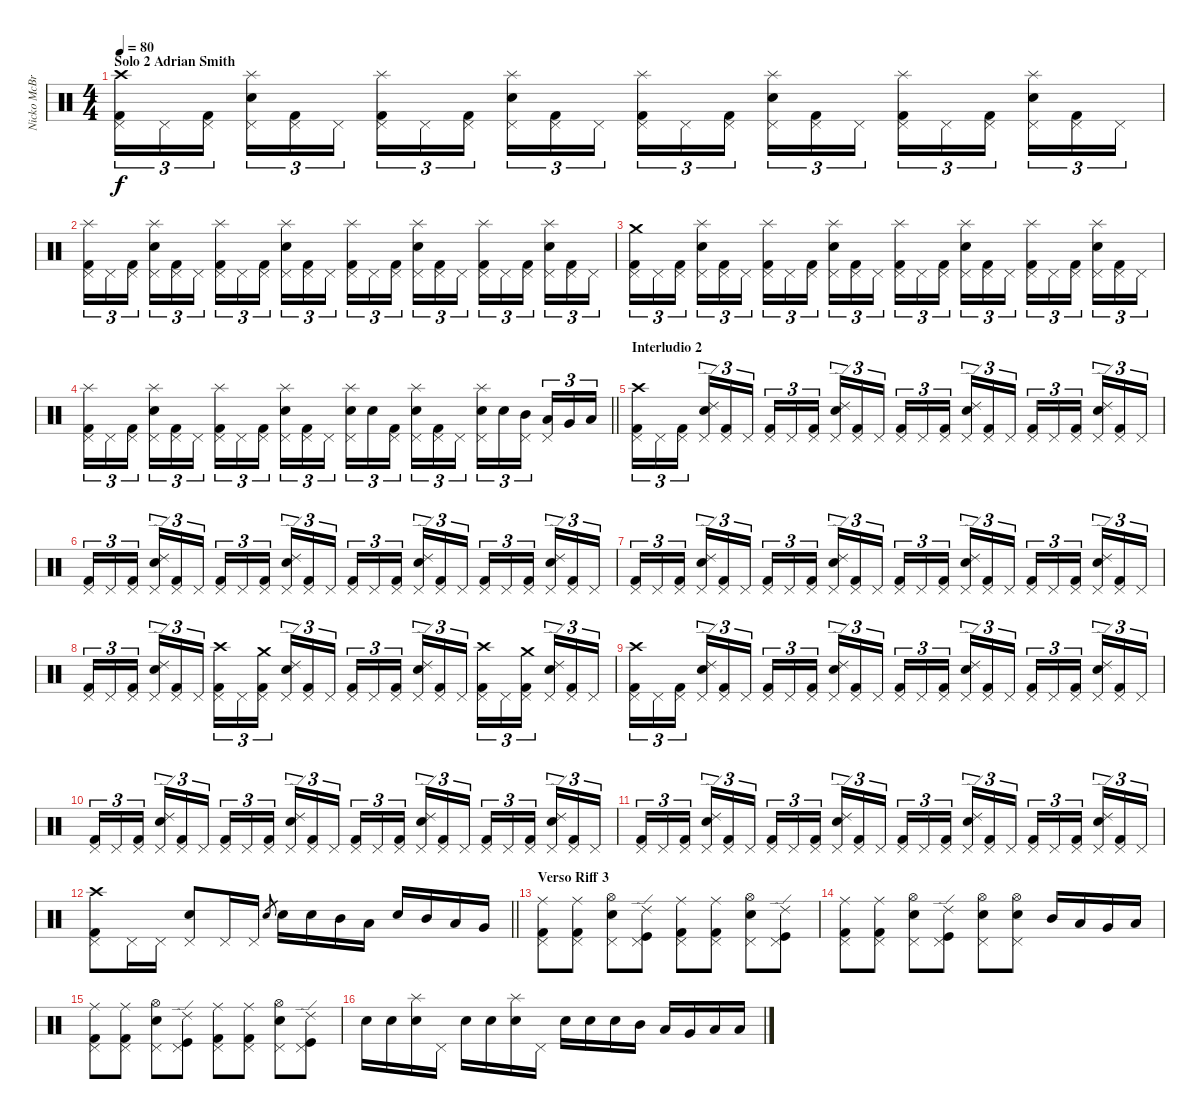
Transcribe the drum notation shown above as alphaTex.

\track ("Nicko McBrain" "Nicko McBr") {instrument percussion}
\staff {score}
\articulation defaults
\ts (4 4)
\section ("" "Solo 2 Adrian Smith")
\tempo 80
\clef neutral
\ks c
("Kick (hit) 2" "Pedal Hi-Hat (hit)" "Crash high (hit)").16{tu (3 2) dy f} "Pedal Hi-Hat (hit)".16{tu (3 2)} ("Kick (hit) 2" "Pedal Hi-Hat (hit)").16{tu (3 2) beam splitsecondary} ("Snare (hit) 2" "Pedal Hi-Hat (hit)" "Splash (hit)").16{tu (3 2)} ("Kick (hit) 2" "Pedal Hi-Hat (hit)").16{tu (3 2)} "Pedal Hi-Hat (hit)".16{tu (3 2)} ("Kick (hit) 2" "Pedal Hi-Hat (hit)" "Splash (hit)").16{tu (3 2)} "Pedal Hi-Hat (hit)".16{tu (3 2)} ("Kick (hit) 2" "Pedal Hi-Hat (hit)").16{tu (3 2) beam splitsecondary} ("Snare (hit) 2" "Pedal Hi-Hat (hit)" "Splash (hit)").16{tu (3 2)} ("Kick (hit) 2" "Pedal Hi-Hat (hit)").16{tu (3 2)} "Pedal Hi-Hat (hit)".16{tu (3 2)} ("Kick (hit) 2" "Pedal Hi-Hat (hit)" "Splash (hit)").16{tu (3 2)} "Pedal Hi-Hat (hit)".16{tu (3 2)} ("Kick (hit) 2" "Pedal Hi-Hat (hit)").16{tu (3 2) beam splitsecondary} ("Snare (hit) 2" "Pedal Hi-Hat (hit)" "Splash (hit)").16{tu (3 2)} ("Kick (hit) 2" "Pedal Hi-Hat (hit)").16{tu (3 2)} "Pedal Hi-Hat (hit)".16{tu (3 2)} ("Kick (hit) 2" "Pedal Hi-Hat (hit)" "Splash (hit)").16{tu (3 2)} "Pedal Hi-Hat (hit)".16{tu (3 2)} ("Kick (hit) 2" "Pedal Hi-Hat (hit)").16{tu (3 2) beam splitsecondary} ("Snare (hit) 2" "Pedal Hi-Hat (hit)" "Splash (hit)").16{tu (3 2)} ("Kick (hit) 2" "Pedal Hi-Hat (hit)").16{tu (3 2)} "Pedal Hi-Hat (hit)".16{tu (3 2)} |
("Kick (hit) 2" "Pedal Hi-Hat (hit)" "Splash (hit)").16{tu (3 2)} "Pedal Hi-Hat (hit)".16{tu (3 2)} ("Kick (hit) 2" "Pedal Hi-Hat (hit)").16{tu (3 2) beam splitsecondary} ("Snare (hit) 2" "Pedal Hi-Hat (hit)" "Splash (hit)").16{tu (3 2)} ("Kick (hit) 2" "Pedal Hi-Hat (hit)").16{tu (3 2)} "Pedal Hi-Hat (hit)".16{tu (3 2)} ("Kick (hit) 2" "Pedal Hi-Hat (hit)" "Splash (hit)").16{tu (3 2)} "Pedal Hi-Hat (hit)".16{tu (3 2)} ("Kick (hit) 2" "Pedal Hi-Hat (hit)").16{tu (3 2) beam splitsecondary} ("Snare (hit) 2" "Pedal Hi-Hat (hit)" "Splash (hit)").16{tu (3 2)} ("Kick (hit) 2" "Pedal Hi-Hat (hit)").16{tu (3 2)} "Pedal Hi-Hat (hit)".16{tu (3 2)} ("Kick (hit) 2" "Pedal Hi-Hat (hit)" "Splash (hit)").16{tu (3 2)} "Pedal Hi-Hat (hit)".16{tu (3 2)} ("Kick (hit) 2" "Pedal Hi-Hat (hit)").16{tu (3 2) beam splitsecondary} ("Snare (hit) 2" "Pedal Hi-Hat (hit)" "Splash (hit)").16{tu (3 2)} ("Kick (hit) 2" "Pedal Hi-Hat (hit)").16{tu (3 2)} "Pedal Hi-Hat (hit)".16{tu (3 2)} ("Kick (hit) 2" "Pedal Hi-Hat (hit)" "Splash (hit)").16{tu (3 2)} "Pedal Hi-Hat (hit)".16{tu (3 2)} ("Kick (hit) 2" "Pedal Hi-Hat (hit)").16{tu (3 2) beam splitsecondary} ("Snare (hit) 2" "Pedal Hi-Hat (hit)" "Splash (hit)").16{tu (3 2)} ("Kick (hit) 2" "Pedal Hi-Hat (hit)").16{tu (3 2)} "Pedal Hi-Hat (hit)".16{tu (3 2)} |
("Kick (hit) 2" "Pedal Hi-Hat (hit)" "Crash medium (hit)").16{tu (3 2)} "Pedal Hi-Hat (hit)".16{tu (3 2)} ("Kick (hit) 2" "Pedal Hi-Hat (hit)").16{tu (3 2) beam splitsecondary} ("Snare (hit) 2" "Pedal Hi-Hat (hit)" "Splash (hit)").16{tu (3 2)} ("Kick (hit) 2" "Pedal Hi-Hat (hit)").16{tu (3 2)} "Pedal Hi-Hat (hit)".16{tu (3 2)} ("Kick (hit) 2" "Pedal Hi-Hat (hit)" "Splash (hit)").16{tu (3 2)} "Pedal Hi-Hat (hit)".16{tu (3 2)} ("Kick (hit) 2" "Pedal Hi-Hat (hit)").16{tu (3 2) beam splitsecondary} ("Snare (hit) 2" "Pedal Hi-Hat (hit)" "Splash (hit)").16{tu (3 2)} ("Kick (hit) 2" "Pedal Hi-Hat (hit)").16{tu (3 2)} "Pedal Hi-Hat (hit)".16{tu (3 2)} ("Kick (hit) 2" "Pedal Hi-Hat (hit)" "Splash (hit)").16{tu (3 2)} "Pedal Hi-Hat (hit)".16{tu (3 2)} ("Kick (hit) 2" "Pedal Hi-Hat (hit)").16{tu (3 2) beam splitsecondary} ("Snare (hit) 2" "Pedal Hi-Hat (hit)" "Splash (hit)").16{tu (3 2)} ("Kick (hit) 2" "Pedal Hi-Hat (hit)").16{tu (3 2)} "Pedal Hi-Hat (hit)".16{tu (3 2)} ("Kick (hit) 2" "Pedal Hi-Hat (hit)" "Splash (hit)").16{tu (3 2)} "Pedal Hi-Hat (hit)".16{tu (3 2)} ("Kick (hit) 2" "Pedal Hi-Hat (hit)").16{tu (3 2) beam splitsecondary} ("Snare (hit) 2" "Pedal Hi-Hat (hit)" "Splash (hit)").16{tu (3 2)} ("Kick (hit) 2" "Pedal Hi-Hat (hit)").16{tu (3 2)} "Pedal Hi-Hat (hit)".16{tu (3 2)} |
\barLineRight lightlight
("Kick (hit) 2" "Pedal Hi-Hat (hit)" "Splash (hit)").16{tu (3 2)} "Pedal Hi-Hat (hit)".16{tu (3 2)} ("Kick (hit) 2" "Pedal Hi-Hat (hit)").16{tu (3 2) beam splitsecondary} ("Snare (hit) 2" "Pedal Hi-Hat (hit)" "Splash (hit)").16{tu (3 2)} ("Kick (hit) 2" "Pedal Hi-Hat (hit)").16{tu (3 2)} "Pedal Hi-Hat (hit)".16{tu (3 2)} ("Kick (hit) 2" "Pedal Hi-Hat (hit)" "Splash (hit)").16{tu (3 2)} "Pedal Hi-Hat (hit)".16{tu (3 2)} ("Kick (hit) 2" "Pedal Hi-Hat (hit)").16{tu (3 2) beam splitsecondary} ("Snare (hit) 2" "Pedal Hi-Hat (hit)" "Splash (hit)").16{tu (3 2)} ("Kick (hit) 2" "Pedal Hi-Hat (hit)").16{tu (3 2)} "Pedal Hi-Hat (hit)".16{tu (3 2)} ("Snare (hit) 2" "Pedal Hi-Hat (hit)" "Splash (hit)").16{tu (3 2)} "Snare (hit) 2".16{tu (3 2)} ("Kick (hit) 2" "Pedal Hi-Hat (hit)").16{tu (3 2) beam splitsecondary} ("Snare (hit) 2" "Pedal Hi-Hat (hit)" "Splash (hit)").16{tu (3 2)} ("Kick (hit) 2" "Pedal Hi-Hat (hit)").16{tu (3 2)} "Pedal Hi-Hat (hit)".16{tu (3 2)} ("Snare (hit) 2" "Pedal Hi-Hat (hit)" "Splash (hit)").16{tu (3 2)} "Snare (hit) 2".16{tu (3 2)} ("Mid Tom (hit)" "Pedal Hi-Hat (hit)").16{tu (3 2) beam splitsecondary} ("Low Tom (hit)" "Pedal Hi-Hat (hit)").16{tu (3 2)} "Very Low Tom (hit)".16{tu (3 2)} "Low Floor Tom (hit)".16{tu (3 2)} |
\section ("" "Interludio 2")
("Kick (hit) 2" "Pedal Hi-Hat (hit)" "Crash high (hit)").16{tu (3 2)} "Pedal Hi-Hat (hit)".16{tu (3 2)} ("Kick (hit) 2" "Pedal Hi-Hat (hit)").16{tu (3 2) beam splitsecondary} ("Snare (hit) 2" "Pedal Hi-Hat (hit)" "Ride (edge) 2").16{tu (3 2)} ("Kick (hit) 2" "Pedal Hi-Hat (hit)").16{tu (3 2)} "Pedal Hi-Hat (hit)".16{tu (3 2)} ("Kick (hit) 2" "Pedal Hi-Hat (hit)").16{tu (3 2)} "Pedal Hi-Hat (hit)".16{tu (3 2)} ("Kick (hit) 2" "Pedal Hi-Hat (hit)").16{tu (3 2) beam splitsecondary} ("Snare (hit) 2" "Pedal Hi-Hat (hit)" "Ride (edge) 2").16{tu (3 2)} ("Kick (hit) 2" "Pedal Hi-Hat (hit)").16{tu (3 2)} "Pedal Hi-Hat (hit)".16{tu (3 2)} ("Kick (hit) 2" "Pedal Hi-Hat (hit)").16{tu (3 2)} "Pedal Hi-Hat (hit)".16{tu (3 2)} ("Kick (hit) 2" "Pedal Hi-Hat (hit)").16{tu (3 2) beam splitsecondary} ("Snare (hit) 2" "Pedal Hi-Hat (hit)" "Ride (edge) 2").16{tu (3 2)} ("Kick (hit) 2" "Pedal Hi-Hat (hit)").16{tu (3 2)} "Pedal Hi-Hat (hit)".16{tu (3 2)} ("Kick (hit) 2" "Pedal Hi-Hat (hit)").16{tu (3 2)} "Pedal Hi-Hat (hit)".16{tu (3 2)} ("Kick (hit) 2" "Pedal Hi-Hat (hit)").16{tu (3 2) beam splitsecondary} ("Snare (hit) 2" "Pedal Hi-Hat (hit)" "Ride (edge) 2").16{tu (3 2)} ("Kick (hit) 2" "Pedal Hi-Hat (hit)").16{tu (3 2)} "Pedal Hi-Hat (hit)".16{tu (3 2)} |
("Kick (hit) 2" "Pedal Hi-Hat (hit)").16{tu (3 2)} "Pedal Hi-Hat (hit)".16{tu (3 2)} ("Kick (hit) 2" "Pedal Hi-Hat (hit)").16{tu (3 2) beam splitsecondary} ("Snare (hit) 2" "Pedal Hi-Hat (hit)" "Ride (edge) 2").16{tu (3 2)} ("Kick (hit) 2" "Pedal Hi-Hat (hit)").16{tu (3 2)} "Pedal Hi-Hat (hit)".16{tu (3 2)} ("Kick (hit) 2" "Pedal Hi-Hat (hit)").16{tu (3 2)} "Pedal Hi-Hat (hit)".16{tu (3 2)} ("Kick (hit) 2" "Pedal Hi-Hat (hit)").16{tu (3 2) beam splitsecondary} ("Snare (hit) 2" "Pedal Hi-Hat (hit)" "Ride (edge) 2").16{tu (3 2)} ("Kick (hit) 2" "Pedal Hi-Hat (hit)").16{tu (3 2)} "Pedal Hi-Hat (hit)".16{tu (3 2)} ("Kick (hit) 2" "Pedal Hi-Hat (hit)").16{tu (3 2)} "Pedal Hi-Hat (hit)".16{tu (3 2)} ("Kick (hit) 2" "Pedal Hi-Hat (hit)").16{tu (3 2) beam splitsecondary} ("Snare (hit) 2" "Pedal Hi-Hat (hit)" "Ride (edge) 2").16{tu (3 2)} ("Kick (hit) 2" "Pedal Hi-Hat (hit)").16{tu (3 2)} "Pedal Hi-Hat (hit)".16{tu (3 2)} ("Kick (hit) 2" "Pedal Hi-Hat (hit)").16{tu (3 2)} "Pedal Hi-Hat (hit)".16{tu (3 2)} ("Kick (hit) 2" "Pedal Hi-Hat (hit)").16{tu (3 2) beam splitsecondary} ("Snare (hit) 2" "Pedal Hi-Hat (hit)" "Ride (edge) 2").16{tu (3 2)} ("Kick (hit) 2" "Pedal Hi-Hat (hit)").16{tu (3 2)} "Pedal Hi-Hat (hit)".16{tu (3 2)} |
("Kick (hit) 2" "Pedal Hi-Hat (hit)").16{tu (3 2)} "Pedal Hi-Hat (hit)".16{tu (3 2)} ("Kick (hit) 2" "Pedal Hi-Hat (hit)").16{tu (3 2) beam splitsecondary} ("Snare (hit) 2" "Pedal Hi-Hat (hit)" "Ride (edge) 2").16{tu (3 2)} ("Kick (hit) 2" "Pedal Hi-Hat (hit)").16{tu (3 2)} "Pedal Hi-Hat (hit)".16{tu (3 2)} ("Kick (hit) 2" "Pedal Hi-Hat (hit)").16{tu (3 2)} "Pedal Hi-Hat (hit)".16{tu (3 2)} ("Kick (hit) 2" "Pedal Hi-Hat (hit)").16{tu (3 2) beam splitsecondary} ("Snare (hit) 2" "Pedal Hi-Hat (hit)" "Ride (edge) 2").16{tu (3 2)} ("Kick (hit) 2" "Pedal Hi-Hat (hit)").16{tu (3 2)} "Pedal Hi-Hat (hit)".16{tu (3 2)} ("Kick (hit) 2" "Pedal Hi-Hat (hit)").16{tu (3 2)} "Pedal Hi-Hat (hit)".16{tu (3 2)} ("Kick (hit) 2" "Pedal Hi-Hat (hit)").16{tu (3 2) beam splitsecondary} ("Snare (hit) 2" "Pedal Hi-Hat (hit)" "Ride (edge) 2").16{tu (3 2)} ("Kick (hit) 2" "Pedal Hi-Hat (hit)").16{tu (3 2)} "Pedal Hi-Hat (hit)".16{tu (3 2)} ("Kick (hit) 2" "Pedal Hi-Hat (hit)").16{tu (3 2)} "Pedal Hi-Hat (hit)".16{tu (3 2)} ("Kick (hit) 2" "Pedal Hi-Hat (hit)").16{tu (3 2) beam splitsecondary} ("Snare (hit) 2" "Pedal Hi-Hat (hit)" "Ride (edge) 2").16{tu (3 2)} ("Kick (hit) 2" "Pedal Hi-Hat (hit)").16{tu (3 2)} "Pedal Hi-Hat (hit)".16{tu (3 2)} |
("Kick (hit) 2" "Pedal Hi-Hat (hit)").16{tu (3 2)} "Pedal Hi-Hat (hit)".16{tu (3 2)} ("Kick (hit) 2" "Pedal Hi-Hat (hit)").16{tu (3 2) beam splitsecondary} ("Snare (hit) 2" "Pedal Hi-Hat (hit)" "Ride (edge) 2").16{tu (3 2)} ("Kick (hit) 2" "Pedal Hi-Hat (hit)").16{tu (3 2)} "Pedal Hi-Hat (hit)".16{tu (3 2)} ("Kick (hit) 2" "Pedal Hi-Hat (hit)" "Crash high (hit)").16{tu (3 2)} "Pedal Hi-Hat (hit)".16{tu (3 2)} ("Kick (hit) 2" "Pedal Hi-Hat (hit)" "Crash medium (hit)").16{tu (3 2) beam splitsecondary} ("Snare (hit) 2" "Pedal Hi-Hat (hit)" "Ride (edge) 2").16{tu (3 2)} ("Kick (hit) 2" "Pedal Hi-Hat (hit)").16{tu (3 2)} "Pedal Hi-Hat (hit)".16{tu (3 2)} ("Kick (hit) 2" "Pedal Hi-Hat (hit)").16{tu (3 2)} "Pedal Hi-Hat (hit)".16{tu (3 2)} ("Kick (hit) 2" "Pedal Hi-Hat (hit)").16{tu (3 2) beam splitsecondary} ("Snare (hit) 2" "Pedal Hi-Hat (hit)" "Ride (edge) 2").16{tu (3 2)} ("Kick (hit) 2" "Pedal Hi-Hat (hit)").16{tu (3 2)} "Pedal Hi-Hat (hit)".16{tu (3 2)} ("Kick (hit) 2" "Pedal Hi-Hat (hit)" "Crash high (hit)").16{tu (3 2)} "Pedal Hi-Hat (hit)".16{tu (3 2)} ("Kick (hit) 2" "Pedal Hi-Hat (hit)" "Crash medium (hit)").16{tu (3 2) beam splitsecondary} ("Snare (hit) 2" "Pedal Hi-Hat (hit)" "Ride (edge) 2").16{tu (3 2)} ("Kick (hit) 2" "Pedal Hi-Hat (hit)").16{tu (3 2)} "Pedal Hi-Hat (hit)".16{tu (3 2)} |
("Kick (hit) 2" "Pedal Hi-Hat (hit)" "Crash high (hit)").16{tu (3 2)} "Pedal Hi-Hat (hit)".16{tu (3 2)} ("Kick (hit) 2" "Pedal Hi-Hat (hit)").16{tu (3 2) beam splitsecondary} ("Snare (hit) 2" "Pedal Hi-Hat (hit)" "Ride (edge) 2").16{tu (3 2)} ("Kick (hit) 2" "Pedal Hi-Hat (hit)").16{tu (3 2)} "Pedal Hi-Hat (hit)".16{tu (3 2)} ("Kick (hit) 2" "Pedal Hi-Hat (hit)").16{tu (3 2)} "Pedal Hi-Hat (hit)".16{tu (3 2)} ("Kick (hit) 2" "Pedal Hi-Hat (hit)").16{tu (3 2) beam splitsecondary} ("Snare (hit) 2" "Pedal Hi-Hat (hit)" "Ride (edge) 2").16{tu (3 2)} ("Kick (hit) 2" "Pedal Hi-Hat (hit)").16{tu (3 2)} "Pedal Hi-Hat (hit)".16{tu (3 2)} ("Kick (hit) 2" "Pedal Hi-Hat (hit)").16{tu (3 2)} "Pedal Hi-Hat (hit)".16{tu (3 2)} ("Kick (hit) 2" "Pedal Hi-Hat (hit)").16{tu (3 2) beam splitsecondary} ("Snare (hit) 2" "Pedal Hi-Hat (hit)" "Ride (edge) 2").16{tu (3 2)} ("Kick (hit) 2" "Pedal Hi-Hat (hit)").16{tu (3 2)} "Pedal Hi-Hat (hit)".16{tu (3 2)} ("Kick (hit) 2" "Pedal Hi-Hat (hit)").16{tu (3 2)} "Pedal Hi-Hat (hit)".16{tu (3 2)} ("Kick (hit) 2" "Pedal Hi-Hat (hit)").16{tu (3 2) beam splitsecondary} ("Snare (hit) 2" "Pedal Hi-Hat (hit)" "Ride (edge) 2").16{tu (3 2)} ("Kick (hit) 2" "Pedal Hi-Hat (hit)").16{tu (3 2)} "Pedal Hi-Hat (hit)".16{tu (3 2)} |
("Kick (hit) 2" "Pedal Hi-Hat (hit)").16{tu (3 2)} "Pedal Hi-Hat (hit)".16{tu (3 2)} ("Kick (hit) 2" "Pedal Hi-Hat (hit)").16{tu (3 2) beam splitsecondary} ("Snare (hit) 2" "Pedal Hi-Hat (hit)" "Ride (edge) 2").16{tu (3 2)} ("Kick (hit) 2" "Pedal Hi-Hat (hit)").16{tu (3 2)} "Pedal Hi-Hat (hit)".16{tu (3 2)} ("Kick (hit) 2" "Pedal Hi-Hat (hit)").16{tu (3 2)} "Pedal Hi-Hat (hit)".16{tu (3 2)} ("Kick (hit) 2" "Pedal Hi-Hat (hit)").16{tu (3 2) beam splitsecondary} ("Snare (hit) 2" "Pedal Hi-Hat (hit)" "Ride (edge) 2").16{tu (3 2)} ("Kick (hit) 2" "Pedal Hi-Hat (hit)").16{tu (3 2)} "Pedal Hi-Hat (hit)".16{tu (3 2)} ("Kick (hit) 2" "Pedal Hi-Hat (hit)").16{tu (3 2)} "Pedal Hi-Hat (hit)".16{tu (3 2)} ("Kick (hit) 2" "Pedal Hi-Hat (hit)").16{tu (3 2) beam splitsecondary} ("Snare (hit) 2" "Pedal Hi-Hat (hit)" "Ride (edge) 2").16{tu (3 2)} ("Kick (hit) 2" "Pedal Hi-Hat (hit)").16{tu (3 2)} "Pedal Hi-Hat (hit)".16{tu (3 2)} ("Kick (hit) 2" "Pedal Hi-Hat (hit)").16{tu (3 2)} "Pedal Hi-Hat (hit)".16{tu (3 2)} ("Kick (hit) 2" "Pedal Hi-Hat (hit)").16{tu (3 2) beam splitsecondary} ("Snare (hit) 2" "Pedal Hi-Hat (hit)" "Ride (edge) 2").16{tu (3 2)} ("Kick (hit) 2" "Pedal Hi-Hat (hit)").16{tu (3 2)} "Pedal Hi-Hat (hit)".16{tu (3 2)} |
("Kick (hit) 2" "Pedal Hi-Hat (hit)").16{tu (3 2)} "Pedal Hi-Hat (hit)".16{tu (3 2)} ("Kick (hit) 2" "Pedal Hi-Hat (hit)").16{tu (3 2) beam splitsecondary} ("Snare (hit) 2" "Pedal Hi-Hat (hit)" "Ride (edge) 2").16{tu (3 2)} ("Kick (hit) 2" "Pedal Hi-Hat (hit)").16{tu (3 2)} "Pedal Hi-Hat (hit)".16{tu (3 2)} ("Kick (hit) 2" "Pedal Hi-Hat (hit)").16{tu (3 2)} "Pedal Hi-Hat (hit)".16{tu (3 2)} ("Kick (hit) 2" "Pedal Hi-Hat (hit)").16{tu (3 2) beam splitsecondary} ("Snare (hit) 2" "Pedal Hi-Hat (hit)" "Ride (edge) 2").16{tu (3 2)} ("Kick (hit) 2" "Pedal Hi-Hat (hit)").16{tu (3 2)} "Pedal Hi-Hat (hit)".16{tu (3 2)} ("Kick (hit) 2" "Pedal Hi-Hat (hit)").16{tu (3 2)} "Pedal Hi-Hat (hit)".16{tu (3 2)} ("Kick (hit) 2" "Pedal Hi-Hat (hit)").16{tu (3 2) beam splitsecondary} ("Snare (hit) 2" "Pedal Hi-Hat (hit)" "Ride (edge) 2").16{tu (3 2)} ("Kick (hit) 2" "Pedal Hi-Hat (hit)").16{tu (3 2)} "Pedal Hi-Hat (hit)".16{tu (3 2)} ("Kick (hit) 2" "Pedal Hi-Hat (hit)").16{tu (3 2)} "Pedal Hi-Hat (hit)".16{tu (3 2)} ("Kick (hit) 2" "Pedal Hi-Hat (hit)").16{tu (3 2) beam splitsecondary} ("Snare (hit) 2" "Pedal Hi-Hat (hit)" "Ride (edge) 2").16{tu (3 2)} ("Kick (hit) 2" "Pedal Hi-Hat (hit)").16{tu (3 2)} "Pedal Hi-Hat (hit)".16{tu (3 2)} |
\barLineRight lightlight
("Kick (hit) 2" "Pedal Hi-Hat (hit)" "Crash high (hit)").8 "Pedal Hi-Hat (hit)".16 "Pedal Hi-Hat (hit)".16 ("Snare (hit) 2" "Pedal Hi-Hat (hit)").8 "Pedal Hi-Hat (hit)".16 "Pedal Hi-Hat (hit)".16 "Snare (hit) 2".8{gr} "Snare (hit) 2".16 "Snare (hit) 2".16 "Mid Tom (hit)".16 "Low Tom (hit)".16 "Snare (hit) 2".16 "Mid Tom (hit)".16 "Low Tom (hit)".16 "Very Low Tom (hit)".16 |
\section ("" "Verso Riff 3")
("Kick (hit) 2" "Pedal Hi-Hat (hit)" "Ride (middle)").8 ("Kick (hit) 2" "Pedal Hi-Hat (hit)" "Ride (middle)").8 ("Snare (hit) 2" "Pedal Hi-Hat (hit)" "Hi-Hat (open)").8 ("Kick (hit)" "Pedal Hi-Hat (hit)" "Ride (edge) 2").8 ("Kick (hit) 2" "Pedal Hi-Hat (hit)" "Ride (middle)").8 ("Kick (hit) 2" "Pedal Hi-Hat (hit)" "Ride (middle)").8 ("Snare (hit) 2" "Pedal Hi-Hat (hit)" "Hi-Hat (open)").8 ("Kick (hit)" "Pedal Hi-Hat (hit)" "Ride (edge) 2").8 |
("Kick (hit) 2" "Pedal Hi-Hat (hit)" "Ride (middle)").8 ("Kick (hit) 2" "Pedal Hi-Hat (hit)" "Ride (middle)").8 ("Snare (hit) 2" "Pedal Hi-Hat (hit)" "Hi-Hat (open)").8 ("Kick (hit)" "Pedal Hi-Hat (hit)" "Ride (edge) 2").8 ("Snare (hit) 2" "Pedal Hi-Hat (hit)" "Hi-Hat (open)").8 ("Snare (hit) 2" "Pedal Hi-Hat (hit)" "Hi-Hat (open)").8 "Mid Tom (hit)".16 "Low Tom (hit)".16 "Very Low Tom (hit)".16 "Low Floor Tom (hit)".16 |
("Kick (hit) 2" "Pedal Hi-Hat (hit)" "Ride (middle)").8 ("Kick (hit) 2" "Pedal Hi-Hat (hit)" "Ride (middle)").8 ("Snare (hit) 2" "Pedal Hi-Hat (hit)" "Hi-Hat (open)").8 ("Kick (hit)" "Pedal Hi-Hat (hit)" "Ride (edge) 2").8 ("Kick (hit) 2" "Pedal Hi-Hat (hit)" "Ride (middle)").8 ("Kick (hit) 2" "Pedal Hi-Hat (hit)" "Ride (middle)").8 ("Snare (hit) 2" "Pedal Hi-Hat (hit)" "Hi-Hat (open)").8 ("Kick (hit)" "Pedal Hi-Hat (hit)" "Ride (edge) 2").8 |
"Snare (hit) 2".16 "Snare (hit) 2".16 ("Snare (hit) 2" "Splash (hit)").16 "Pedal Hi-Hat (hit)".16 "Snare (hit) 2".16 "Snare (hit) 2".16 ("Snare (hit) 2" "Splash (hit)").16 "Pedal Hi-Hat (hit)".16 "Snare (hit) 2".16 "Snare (hit) 2".16 "Snare (hit) 2".16 "Mid Tom (hit)".16 "Low Tom (hit)".16 "Very Low Tom (hit)".16 "Low Floor Tom (hit)".16 "Low Floor Tom (hit)".16
